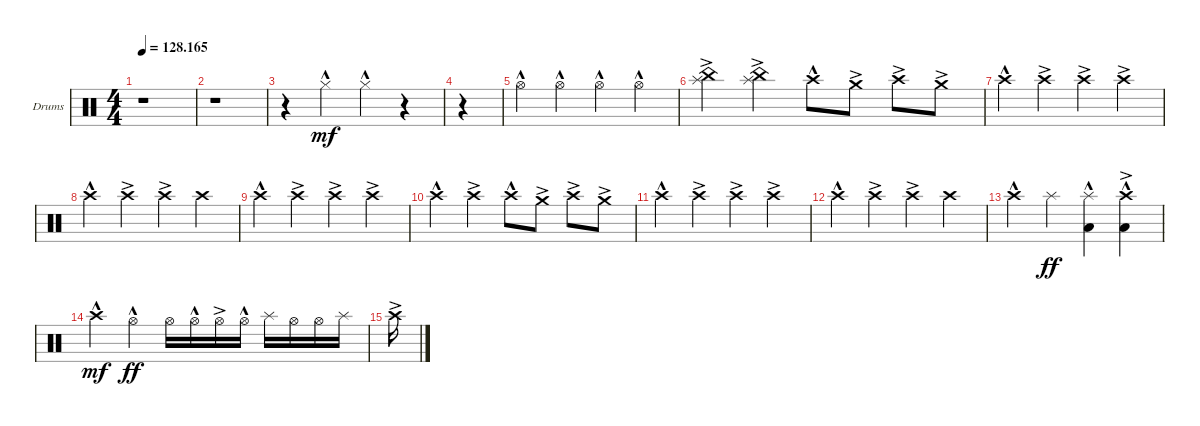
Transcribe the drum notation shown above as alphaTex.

\defaultSystemsLayout 4
\bracketExtendMode groupsimilarinstruments
\firstSystemTrackNameOrientation horizontal
\otherSystemsTrackNameOrientation horizontal
\track ("Drumkit" "Drums") {instrument percussion}
\staff {score}
\articulation defaults
\ts (4 4)
\tempo
128.165
\accidentals auto
\clef neutral
\ottava regular
\simile none
\ks c
r.1{dy f} |
r.1 |
r.4 "Hi-Hat (closed)"{hac}.4{dy mf} "Hi-Hat (closed)"{hac}.4 r.4 |
r.4 |
"Hi-Hat (open)"{hac}.4 "Hi-Hat (open)"{hac}.4 "Hi-Hat (open)"{hac}.4 "Hi-Hat (open)"{hac}.4 |
("China (hit)"{ac} "Splash (hit)"{ac}).4 ("China (hit)"{ac} "Splash (hit)"{ac}).4 "Crash high (hit)"{hac}.8 "Crash medium (hit)"{ac}.8 "Crash high (hit)"{ac}.8 "Crash medium (hit)"{ac}.8 |
"Crash high (hit)"{hac}.4 "Crash high (hit)"{ac}.4 "Crash high (hit)"{ac}.4 "Crash high (hit)"{ac}.4 |
"Crash high (hit)"{hac}.4 "Crash high (hit)"{ac}.4 "Crash high (hit)"{ac}.4 "Crash high (hit)".4 |
"Crash high (hit)"{hac}.4 "Crash high (hit)"{ac}.4 "Crash high (hit)"{ac}.4 "Crash high (hit)"{ac}.4 |
"Crash high (hit)"{hac}.4 "Crash high (hit)"{ac}.4 "Crash high (hit)"{hac}.8 "Crash medium (hit)"{ac}.8 "Crash high (hit)"{ac}.8 "Crash medium (hit)"{ac}.8 |
"Crash high (hit)"{hac}.4 "Crash high (hit)"{ac}.4 "Crash high (hit)"{ac}.4 "Crash high (hit)"{ac}.4 |
"Crash high (hit)"{hac}.4 "Crash high (hit)"{ac}.4 "Crash high (hit)"{ac}.4 "Crash high (hit)".4 |
"Crash high (hit)"{hac}.4 "Splash (hit)".4{dy ff} ("Low Tom (hit)"{hac} "Splash (hit)").4 ("Low Tom (hit)"{hac} "Crash high (hit)"{ac}).4 |
"Crash high (hit)"{hac}.4{dy mf} "Hi-Hat (open)"{hac}.4{dy ff} "Hi-Hat (open)".16 "Hi-Hat (open)"{hac}.16 "Hi-Hat (open)"{ac}.16 "Hi-Hat (open)"{hac}.16 "Splash (hit)".16 "Hi-Hat (open)".16 "Hi-Hat (open)".16 "Splash (hit)".16 |
"Crash high (hit)"{ac}.16
